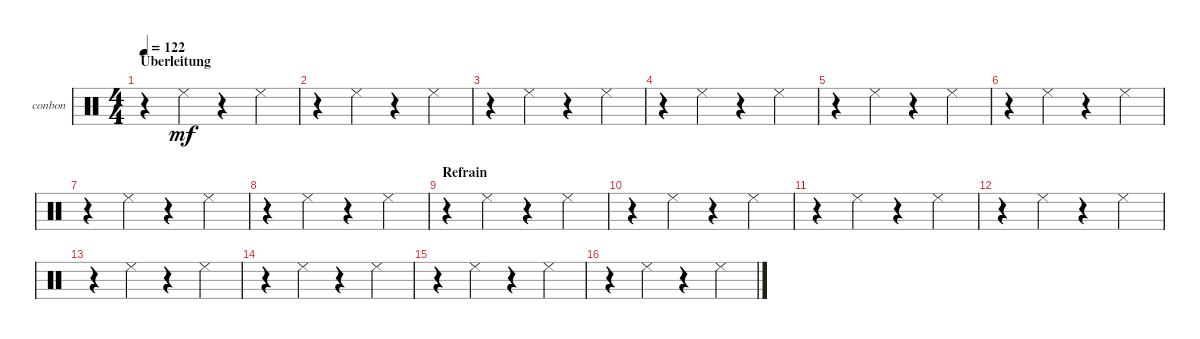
\defaultSystemsLayout 4
\bracketExtendMode groupsimilarinstruments
\firstSystemTrackNameOrientation horizontal
\otherSystemsTrackNameOrientation horizontal
\track ("Bongos N Congas" "conbon") {instrument percussion}
\staff {score}
\articulation defaults
\ts (4 4)
\section ("" "Überleitung")
\scale
0.468023
\tempo 122
\accidentals auto
\clef neutral
\ottava regular
\simile none
\ks c
r.4{dy mf} "Cowbell low (tip)".4 r.4 "Cowbell low (tip)".4 |
r.4 "Cowbell low (tip)".4 r.4 "Cowbell low (tip)".4 |
r.4 "Cowbell low (tip)".4 r.4 "Cowbell low (tip)".4 |
r.4 "Cowbell low (tip)".4 r.4 "Cowbell low (tip)".4 |
r.4 "Cowbell low (tip)".4 r.4 "Cowbell low (tip)".4 |
\scale
0.268041 r.4 "Cowbell low (tip)".4 r.4 "Cowbell low (tip)".4 |
\scale
0.223859 r.4 "Cowbell low (tip)".4 r.4 "Cowbell low (tip)".4 |
\scale
0.270987 r.4 "Cowbell low (tip)".4 r.4 "Cowbell low (tip)".4 |
\section ("" "Refrain")
\scale
0.237113 r.4 "Cowbell low (tip)".4 r.4 "Cowbell low (tip)".4 |
r.4 "Cowbell low (tip)".4 r.4 "Cowbell low (tip)".4 |
r.4 "Cowbell low (tip)".4 r.4 "Cowbell low (tip)".4 |
r.4 "Cowbell low (tip)".4 r.4 "Cowbell low (tip)".4 |
r.4 "Cowbell low (tip)".4 r.4 "Cowbell low (tip)".4 |
r.4 "Cowbell low (tip)".4 r.4 "Cowbell low (tip)".4 |
r.4 "Cowbell low (tip)".4 r.4 "Cowbell low (tip)".4 |
r.4 "Cowbell low (tip)".4 r.4 "Cowbell low (tip)".4
